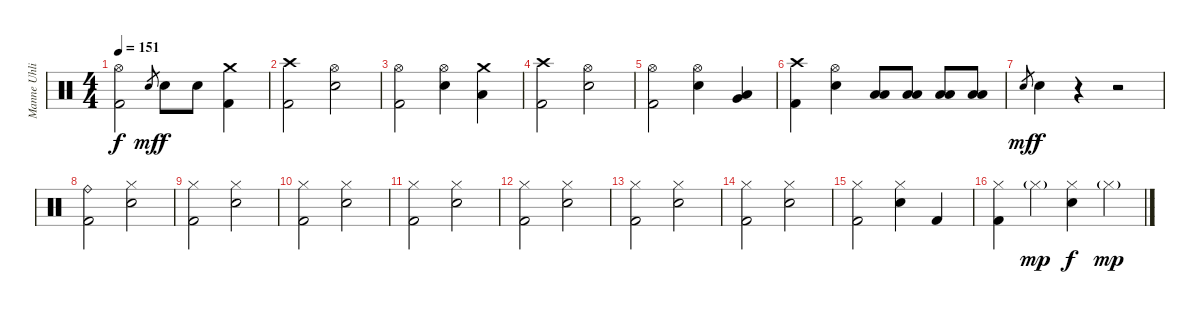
\track ("Manne Uhlig" "Manne Uhli") {instrument percussion}
\staff {score}
\articulation defaults
\ts (4 4)
\tempo 151
\clef neutral
\ks c
("Hi-Hat (open)" "Kick (hit) 2").2{dy f} "Snare (hit) 2".8{gr dy mf} "Snare (hit) 2".8{dy f} "Snare (hit) 2".8 ("Crash medium (hit)" "Kick (hit) 2").4 |
("Crash high (hit)" "Kick (hit) 2").2 ("Hi-Hat (open)" "Snare (hit) 2").2 |
("Hi-Hat (open)" "Kick (hit) 2").2 ("Hi-Hat (open)" "Snare (hit) 2").4 ("Crash medium (hit)" "Low Tom (hit)").4 |
("Crash high (hit)" "Kick (hit) 2").2 ("Hi-Hat (open)" "Snare (hit) 2").2 |
("Hi-Hat (open)" "Kick (hit) 2").2 ("Hi-Hat (open)" "Snare (hit) 2").4 ("Very Low Tom (hit)" "Low Floor Tom (hit)").4 |
("Crash high (hit)" "Kick (hit) 2").4 ("Hi-Hat (open)" "Snare (hit) 2").4 ("Low Tom (hit)" "Low Floor Tom (hit)").8 ("Low Tom (hit)" "Low Floor Tom (hit)").8 ("Low Tom (hit)" "Low Floor Tom (hit)").8 ("Low Tom (hit)" "Low Floor Tom (hit)").8 |
"Snare (hit) 2".8{gr dy mf} "Snare (hit) 2".4{dy f} r.4 r.2 |
("Ride (bell)" "Kick (hit) 2").2 ("Hi-Hat (closed)" "Snare (hit) 2").2 |
("Hi-Hat (closed)" "Kick (hit) 2").2 ("Hi-Hat (closed)" "Snare (hit) 2").2 |
("Hi-Hat (closed)" "Kick (hit) 2").2 ("Hi-Hat (closed)" "Snare (hit) 2").2 |
("Hi-Hat (closed)" "Kick (hit) 2").2 ("Hi-Hat (closed)" "Snare (hit) 2").2 |
("Hi-Hat (closed)" "Kick (hit) 2").2 ("Hi-Hat (closed)" "Snare (hit) 2").2 |
("Hi-Hat (closed)" "Kick (hit) 2").2 ("Hi-Hat (closed)" "Snare (hit) 2").2 |
("Hi-Hat (closed)" "Kick (hit) 2").2 ("Hi-Hat (closed)" "Snare (hit) 2").2 |
("Hi-Hat (closed)" "Kick (hit) 2").2 ("Hi-Hat (closed)" "Snare (hit) 2").4 "Kick (hit) 2".4 |
("Hi-Hat (closed)" "Kick (hit) 2").4 "Hi-Hat (closed)"{g}.4{dy mp} ("Hi-Hat (closed)" "Snare (hit) 2").4{dy f} "Hi-Hat (closed)"{g}.4{dy mp}
